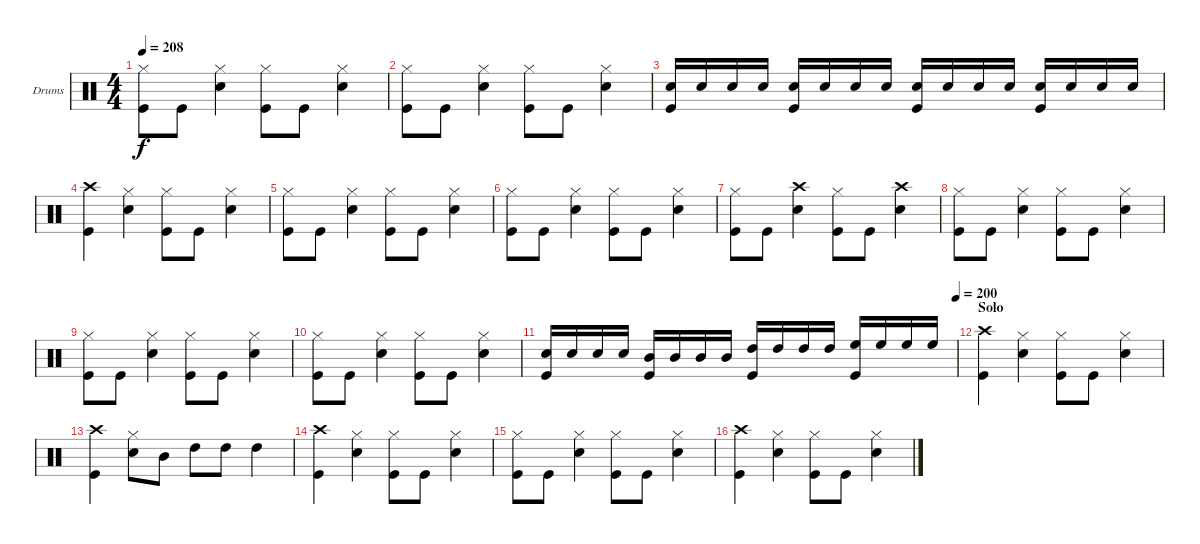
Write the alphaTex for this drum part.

\defaultSystemsLayout 4
\bracketExtendMode groupsimilarinstruments
\firstSystemTrackNameOrientation horizontal
\otherSystemsTrackNameOrientation horizontal
\track ("Drums" "Drums") {instrument percussion}
\staff {score}
\articulation defaults
\ts (4 4)
\tempo 208
\clef neutral
\ks c
("Kick (hit)" "Hi-Hat (closed)").8{dy f} "Kick (hit)".8 ("Snare (hit) 2" "Hi-Hat (closed)").4 ("Kick (hit)" "Hi-Hat (closed)").8 "Kick (hit)".8 ("Snare (hit) 2" "Hi-Hat (closed)").4 |
("Kick (hit)" "Hi-Hat (closed)").8 "Kick (hit)".8 ("Snare (hit) 2" "Hi-Hat (closed)").4 ("Kick (hit)" "Hi-Hat (closed)").8 "Kick (hit)".8 ("Snare (hit) 2" "Hi-Hat (closed)").4 |
("Snare (hit) 2" "Kick (hit)").16 "Snare (hit) 2".16 "Snare (hit) 2".16 "Snare (hit) 2".16 ("Snare (hit) 2" "Kick (hit)").16 "Snare (hit) 2".16 "Snare (hit) 2".16 "Snare (hit) 2".16 ("Snare (hit) 2" "Kick (hit)").16 "Snare (hit) 2".16 "Snare (hit) 2".16 "Snare (hit) 2".16 ("Snare (hit) 2" "Kick (hit)").16 "Snare (hit) 2".16 "Snare (hit) 2".16 "Snare (hit) 2".16 |
("Kick (hit)" "Crash high (hit)").4 ("Hi-Hat (closed)" "Snare (hit) 2").4 ("Kick (hit)" "Hi-Hat (closed)").8 "Kick (hit)".8 ("Snare (hit) 2" "Hi-Hat (closed)").4 |
("Kick (hit)" "Hi-Hat (closed)").8 "Kick (hit)".8 ("Snare (hit) 2" "Hi-Hat (closed)").4 ("Kick (hit)" "Hi-Hat (closed)").8 "Kick (hit)".8 ("Snare (hit) 2" "Hi-Hat (closed)").4 |
("Kick (hit)" "Hi-Hat (closed)").8 "Kick (hit)".8 ("Snare (hit) 2" "Hi-Hat (closed)").4 ("Kick (hit)" "Hi-Hat (closed)").8 "Kick (hit)".8 ("Snare (hit) 2" "Hi-Hat (closed)").4 |
("Kick (hit)" "Hi-Hat (closed)").8 "Kick (hit)".8 ("Crash high (hit)" "Snare (hit) 2").4 ("Kick (hit)" "Hi-Hat (closed)").8 "Kick (hit)".8 ("Crash high (hit)" "Snare (hit) 2").4 |
("Kick (hit)" "Hi-Hat (closed)").8 "Kick (hit)".8 ("Snare (hit) 2" "Hi-Hat (closed)").4 ("Kick (hit)" "Hi-Hat (closed)").8 "Kick (hit)".8 ("Snare (hit) 2" "Hi-Hat (closed)").4 |
("Kick (hit)" "Hi-Hat (closed)").8 "Kick (hit)".8 ("Snare (hit) 2" "Hi-Hat (closed)").4 ("Kick (hit)" "Hi-Hat (closed)").8 "Kick (hit)".8 ("Snare (hit) 2" "Hi-Hat (closed)").4 |
("Kick (hit)" "Hi-Hat (closed)").8 "Kick (hit)".8 ("Snare (hit) 2" "Hi-Hat (closed)").4 ("Kick (hit)" "Hi-Hat (closed)").8 "Kick (hit)".8 ("Snare (hit) 2" "Hi-Hat (closed)").4 |
\tempo (200 1)
("Snare (hit) 2" "Kick (hit)").16 "Snare (hit) 2".16 "Snare (hit) 2".16 "Snare (hit) 2".16 ("Mid Tom (hit)" "Kick (hit)").16 "Mid Tom (hit)".16 "Mid Tom (hit)".16 "Mid Tom (hit)".16 ("High Tom (hit)" "Kick (hit)").16 "High Tom (hit)".16 "High Tom (hit)".16 "High Tom (hit)".16 ("High Floor Tom (hit)" "Kick (hit)").16 "High Floor Tom (hit)".16 "High Floor Tom (hit)".16 "High Floor Tom (hit)".16 |
\section ("" "Solo")
("Kick (hit)" "Crash high (hit)").4 ("Snare (hit) 2" "Hi-Hat (closed)").4 ("Kick (hit)" "Hi-Hat (closed)").8 "Kick (hit)".8 ("Snare (hit) 2" "Hi-Hat (closed)").4 |
("Kick (hit)" "Crash high (hit)").4 ("Snare (hit) 2" "Hi-Hat (closed)").8 "Mid Tom (hit)".8 "High Tom (hit)".8 "High Tom (hit)".8 "High Tom (hit)".4 |
("Kick (hit)" "Crash high (hit)").4 ("Snare (hit) 2" "Hi-Hat (closed)").4 ("Kick (hit)" "Hi-Hat (closed)").8 "Kick (hit)".8 ("Snare (hit) 2" "Hi-Hat (closed)").4 |
("Hi-Hat (closed)" "Kick (hit)").8 "Kick (hit)".8 ("Snare (hit) 2" "Hi-Hat (closed)").4 ("Hi-Hat (closed)" "Kick (hit)").8 "Kick (hit)".8 ("Snare (hit) 2" "Hi-Hat (closed)").4 |
("Kick (hit)" "Crash high (hit)").4 ("Snare (hit) 2" "Hi-Hat (closed)").4 ("Kick (hit)" "Hi-Hat (closed)").8 "Kick (hit)".8 ("Snare (hit) 2" "Hi-Hat (closed)").4
